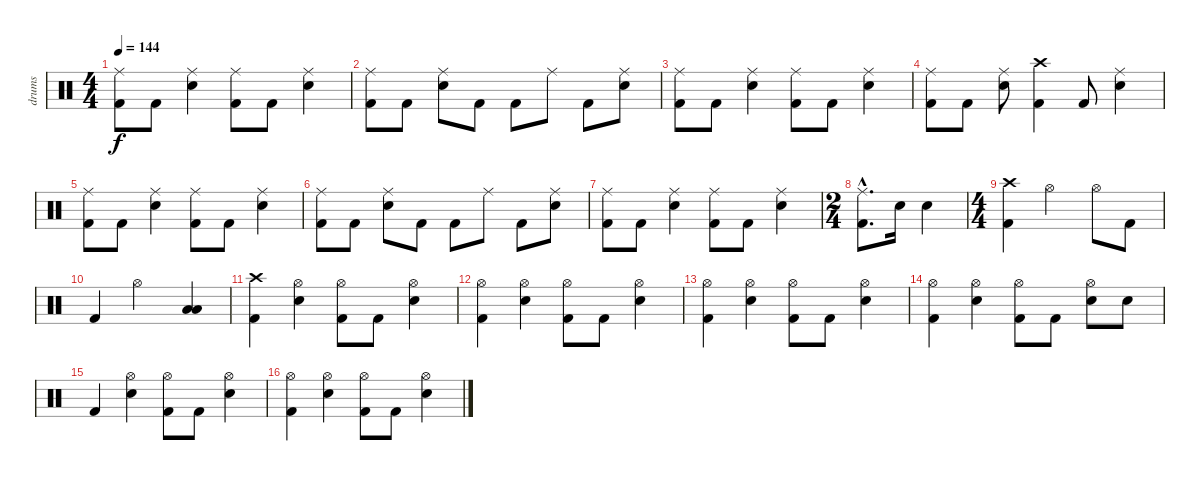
\track ("drums" "drums") {instrument percussion}
\staff {score}
\articulation defaults
\ts (4 4)
\tempo 144
\clef neutral
\ks c
("Ride (middle)" "Kick (hit) 2").8{dy f} "Kick (hit) 2".8 ("Ride (middle)" "Electric Snare (hit)").4 ("Ride (middle)" "Kick (hit) 2").8 "Kick (hit) 2".8 ("Ride (middle)" "Electric Snare (hit)").4 |
("Ride (middle)" "Kick (hit) 2").8 "Kick (hit) 2".8 ("Ride (middle)" "Electric Snare (hit)").8 "Kick (hit) 2".8 "Kick (hit) 2".8 "Ride (middle)".8 "Kick (hit) 2".8 ("Ride (middle)" "Electric Snare (hit)").8 |
("Ride (middle)" "Kick (hit) 2").8 "Kick (hit) 2".8 ("Ride (middle)" "Electric Snare (hit)").4 ("Ride (middle)" "Kick (hit) 2").8 "Kick (hit) 2".8 ("Ride (middle)" "Electric Snare (hit)").4 |
("Ride (middle)" "Kick (hit) 2").8 "Kick (hit) 2".8 ("Ride (middle)" "Electric Snare (hit)").8 ("Crash high (hit)" "Kick (hit) 2").4 "Kick (hit) 2".8 ("Ride (middle)" "Electric Snare (hit)").4 |
("Ride (middle)" "Kick (hit) 2").8 "Kick (hit) 2".8 ("Ride (middle)" "Electric Snare (hit)").4 ("Ride (middle)" "Kick (hit) 2").8 "Kick (hit) 2".8 ("Ride (middle)" "Electric Snare (hit)").4 |
("Ride (middle)" "Kick (hit) 2").8 "Kick (hit) 2".8 ("Ride (middle)" "Electric Snare (hit)").8 "Kick (hit) 2".8 "Kick (hit) 2".8 "Ride (middle)".8 "Kick (hit) 2".8 ("Ride (middle)" "Electric Snare (hit)").8 |
("Ride (middle)" "Kick (hit) 2").8 "Kick (hit) 2".8 ("Ride (middle)" "Electric Snare (hit)").4 ("Ride (middle)" "Kick (hit) 2").8 "Kick (hit) 2".8 ("Ride (middle)" "Electric Snare (hit)").4 |
\ts (2 4)
("Ride (middle)"{hac} "Kick (hit) 2"{hac}).8{d} "Electric Snare (hit)".16 "Electric Snare (hit)".4 |
\ts (4 4)
("Crash high (hit)" "Kick (hit) 2").4 "Hi-Hat (open)".2 "Hi-Hat (open)".8 "Kick (hit) 2".8 |
"Kick (hit) 2".4 "Hi-Hat (open)".2 ("Low Tom (hit)" "Low Floor Tom (hit)").4 |
("Crash high (hit)" "Kick (hit) 2").4 ("Hi-Hat (open)" "Electric Snare (hit)").4 ("Hi-Hat (open)" "Kick (hit) 2").8 "Kick (hit) 2".8 ("Hi-Hat (open)" "Electric Snare (hit)").4 |
("Hi-Hat (open)" "Kick (hit) 2").4 ("Hi-Hat (open)" "Electric Snare (hit)").4 ("Hi-Hat (open)" "Kick (hit) 2").8 "Kick (hit) 2".8 ("Hi-Hat (open)" "Electric Snare (hit)").4 |
("Hi-Hat (open)" "Kick (hit) 2").4 ("Hi-Hat (open)" "Electric Snare (hit)").4 ("Hi-Hat (open)" "Kick (hit) 2").8 "Kick (hit) 2".8 ("Hi-Hat (open)" "Electric Snare (hit)").4 |
("Hi-Hat (open)" "Kick (hit) 2").4 ("Hi-Hat (open)" "Electric Snare (hit)").4 ("Hi-Hat (open)" "Kick (hit) 2").8 "Kick (hit) 2".8 ("Hi-Hat (open)" "Electric Snare (hit)").8 "Electric Snare (hit)".8 |
"Kick (hit) 2".4 ("Hi-Hat (open)" "Electric Snare (hit)").4 ("Hi-Hat (open)" "Kick (hit) 2").8 "Kick (hit) 2".8 ("Hi-Hat (open)" "Electric Snare (hit)").4 |
("Hi-Hat (open)" "Kick (hit) 2").4 ("Hi-Hat (open)" "Electric Snare (hit)").4 ("Hi-Hat (open)" "Kick (hit) 2").8 "Kick (hit) 2".8 ("Hi-Hat (open)" "Electric Snare (hit)").4
